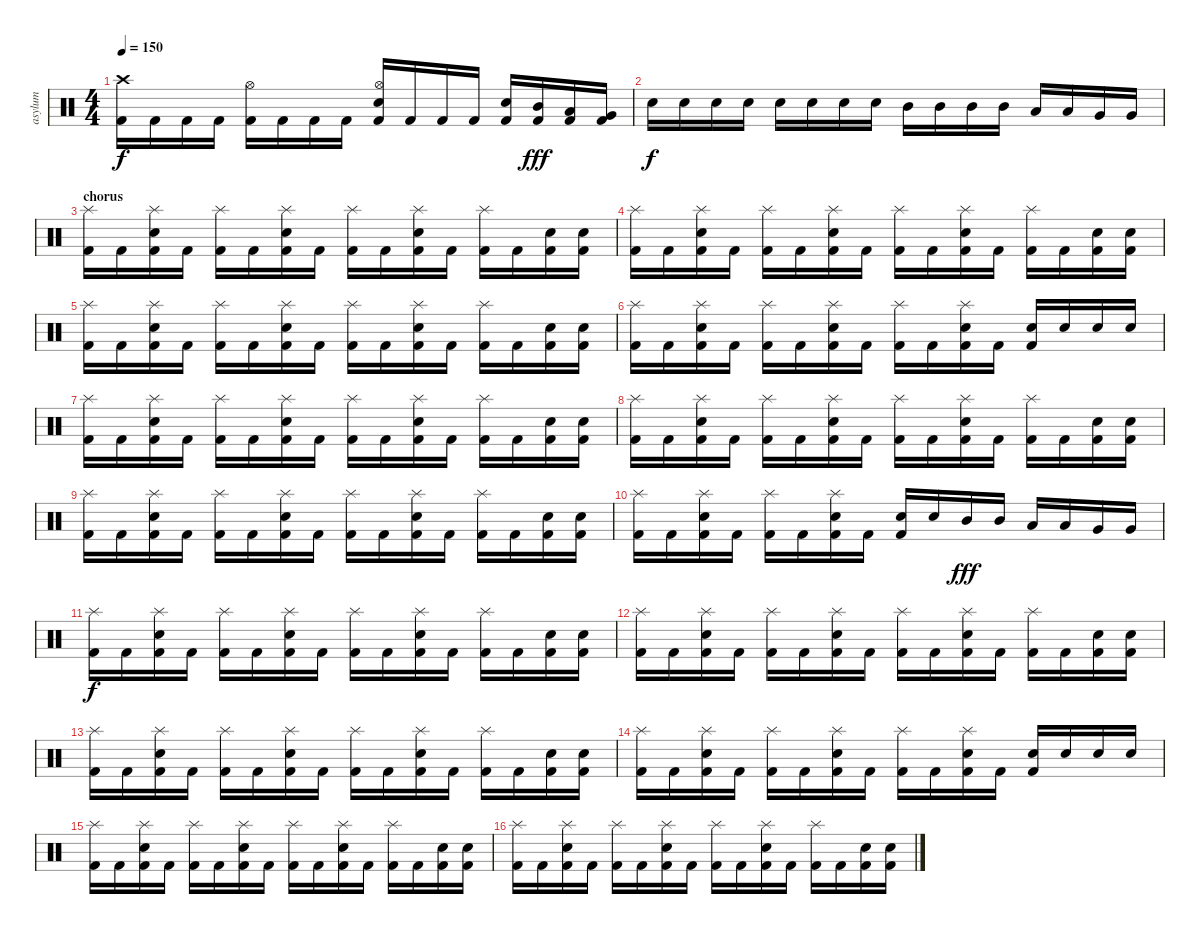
\track ("asylum" "asylum") {instrument percussion}
\staff {score}
\articulation defaults
\ts (4 4)
\tempo 150
\clef neutral
\ks c
("Crash high (hit)" "Kick (hit) 2").16{dy f} "Kick (hit) 2".16 "Kick (hit) 2".16 "Kick (hit) 2".16 ("Hi-Hat (open)" "Kick (hit) 2").16 "Kick (hit) 2".16 "Kick (hit) 2".16 "Kick (hit) 2".16 ("Hi-Hat (open)" "Electric Snare (hit)" "Kick (hit) 2").16 "Kick (hit) 2".16 "Kick (hit) 2".16 "Kick (hit) 2".16 ("Electric Snare (hit)" "Kick (hit) 2").16 ("Mid Tom (hit)" "Kick (hit) 2").16{dy fff} ("Low Tom (hit)" "Kick (hit) 2").16 ("Very Low Tom (hit)" "Kick (hit) 2").16 |
"Electric Snare (hit)".16{dy f} "Electric Snare (hit)".16 "Electric Snare (hit)".16 "Electric Snare (hit)".16 "Electric Snare (hit)".16 "Electric Snare (hit)".16 "Electric Snare (hit)".16 "Electric Snare (hit)".16 "Mid Tom (hit)".16 "Mid Tom (hit)".16 "Mid Tom (hit)".16 "Mid Tom (hit)".16 "Low Tom (hit)".16 "Low Tom (hit)".16 "Very Low Tom (hit)".16 "Very Low Tom (hit)".16 |
\section ("" "chorus")
("Splash (hit)" "Kick (hit) 2").16 "Kick (hit) 2".16 ("Splash (hit)" "Electric Snare (hit)" "Kick (hit) 2").16 "Kick (hit) 2".16 ("Splash (hit)" "Kick (hit) 2").16 "Kick (hit) 2".16 ("Splash (hit)" "Electric Snare (hit)" "Kick (hit) 2").16 "Kick (hit) 2".16 ("Splash (hit)" "Kick (hit) 2").16 "Kick (hit) 2".16 ("Splash (hit)" "Electric Snare (hit)" "Kick (hit) 2").16 "Kick (hit) 2".16 ("Splash (hit)" "Kick (hit) 2").16 "Kick (hit) 2".16 ("Electric Snare (hit)" "Kick (hit) 2").16 ("Electric Snare (hit)" "Kick (hit) 2").16 |
("Splash (hit)" "Kick (hit) 2").16 "Kick (hit) 2".16 ("Splash (hit)" "Electric Snare (hit)" "Kick (hit) 2").16 "Kick (hit) 2".16 ("Splash (hit)" "Kick (hit) 2").16 "Kick (hit) 2".16 ("Splash (hit)" "Electric Snare (hit)" "Kick (hit) 2").16 "Kick (hit) 2".16 ("Splash (hit)" "Kick (hit) 2").16 "Kick (hit) 2".16 ("Splash (hit)" "Electric Snare (hit)" "Kick (hit) 2").16 "Kick (hit) 2".16 ("Splash (hit)" "Kick (hit) 2").16 "Kick (hit) 2".16 ("Electric Snare (hit)" "Kick (hit) 2").16 ("Electric Snare (hit)" "Kick (hit) 2").16 |
("Splash (hit)" "Kick (hit) 2").16 "Kick (hit) 2".16 ("Splash (hit)" "Electric Snare (hit)" "Kick (hit) 2").16 "Kick (hit) 2".16 ("Splash (hit)" "Kick (hit) 2").16 "Kick (hit) 2".16 ("Splash (hit)" "Electric Snare (hit)" "Kick (hit) 2").16 "Kick (hit) 2".16 ("Splash (hit)" "Kick (hit) 2").16 "Kick (hit) 2".16 ("Splash (hit)" "Electric Snare (hit)" "Kick (hit) 2").16 "Kick (hit) 2".16 ("Splash (hit)" "Kick (hit) 2").16 "Kick (hit) 2".16 ("Electric Snare (hit)" "Kick (hit) 2").16 ("Electric Snare (hit)" "Kick (hit) 2").16 |
("Splash (hit)" "Kick (hit) 2").16 "Kick (hit) 2".16 ("Splash (hit)" "Electric Snare (hit)" "Kick (hit) 2").16 "Kick (hit) 2".16 ("Splash (hit)" "Kick (hit) 2").16 "Kick (hit) 2".16 ("Splash (hit)" "Electric Snare (hit)" "Kick (hit) 2").16 "Kick (hit) 2".16 ("Splash (hit)" "Kick (hit) 2").16 "Kick (hit) 2".16 ("Splash (hit)" "Electric Snare (hit)" "Kick (hit) 2").16 "Kick (hit) 2".16 ("Electric Snare (hit)" "Kick (hit) 2").16 "Electric Snare (hit)".16 "Electric Snare (hit)".16 "Electric Snare (hit)".16 |
("Splash (hit)" "Kick (hit) 2").16 "Kick (hit) 2".16 ("Splash (hit)" "Electric Snare (hit)" "Kick (hit) 2").16 "Kick (hit) 2".16 ("Splash (hit)" "Kick (hit) 2").16 "Kick (hit) 2".16 ("Splash (hit)" "Electric Snare (hit)" "Kick (hit) 2").16 "Kick (hit) 2".16 ("Splash (hit)" "Kick (hit) 2").16 "Kick (hit) 2".16 ("Splash (hit)" "Electric Snare (hit)" "Kick (hit) 2").16 "Kick (hit) 2".16 ("Splash (hit)" "Kick (hit) 2").16 "Kick (hit) 2".16 ("Electric Snare (hit)" "Kick (hit) 2").16 ("Electric Snare (hit)" "Kick (hit) 2").16 |
("Splash (hit)" "Kick (hit) 2").16 "Kick (hit) 2".16 ("Splash (hit)" "Electric Snare (hit)" "Kick (hit) 2").16 "Kick (hit) 2".16 ("Splash (hit)" "Kick (hit) 2").16 "Kick (hit) 2".16 ("Splash (hit)" "Electric Snare (hit)" "Kick (hit) 2").16 "Kick (hit) 2".16 ("Splash (hit)" "Kick (hit) 2").16 "Kick (hit) 2".16 ("Splash (hit)" "Electric Snare (hit)" "Kick (hit) 2").16 "Kick (hit) 2".16 ("Splash (hit)" "Kick (hit) 2").16 "Kick (hit) 2".16 ("Electric Snare (hit)" "Kick (hit) 2").16 ("Electric Snare (hit)" "Kick (hit) 2").16 |
("Splash (hit)" "Kick (hit) 2").16 "Kick (hit) 2".16 ("Splash (hit)" "Electric Snare (hit)" "Kick (hit) 2").16 "Kick (hit) 2".16 ("Splash (hit)" "Kick (hit) 2").16 "Kick (hit) 2".16 ("Splash (hit)" "Electric Snare (hit)" "Kick (hit) 2").16 "Kick (hit) 2".16 ("Splash (hit)" "Kick (hit) 2").16 "Kick (hit) 2".16 ("Splash (hit)" "Electric Snare (hit)" "Kick (hit) 2").16 "Kick (hit) 2".16 ("Splash (hit)" "Kick (hit) 2").16 "Kick (hit) 2".16 ("Electric Snare (hit)" "Kick (hit) 2").16 ("Electric Snare (hit)" "Kick (hit) 2").16 |
("Splash (hit)" "Kick (hit) 2").16 "Kick (hit) 2".16 ("Splash (hit)" "Electric Snare (hit)" "Kick (hit) 2").16 "Kick (hit) 2".16 ("Splash (hit)" "Kick (hit) 2").16 "Kick (hit) 2".16 ("Splash (hit)" "Electric Snare (hit)" "Kick (hit) 2").16 "Kick (hit) 2".16 ("Electric Snare (hit)" "Kick (hit) 2").16 "Electric Snare (hit)".16 "Mid Tom (hit)".16{dy fff} "Mid Tom (hit)".16 "Low Tom (hit)".16 "Low Tom (hit)".16 "Very Low Tom (hit)".16 "Very Low Tom (hit)".16 |
("Splash (hit)" "Kick (hit) 2").16{dy f} "Kick (hit) 2".16 ("Splash (hit)" "Electric Snare (hit)" "Kick (hit) 2").16 "Kick (hit) 2".16 ("Splash (hit)" "Kick (hit) 2").16 "Kick (hit) 2".16 ("Splash (hit)" "Electric Snare (hit)" "Kick (hit) 2").16 "Kick (hit) 2".16 ("Splash (hit)" "Kick (hit) 2").16 "Kick (hit) 2".16 ("Splash (hit)" "Electric Snare (hit)" "Kick (hit) 2").16 "Kick (hit) 2".16 ("Splash (hit)" "Kick (hit) 2").16 "Kick (hit) 2".16 ("Electric Snare (hit)" "Kick (hit) 2").16 ("Electric Snare (hit)" "Kick (hit) 2").16 |
("Splash (hit)" "Kick (hit) 2").16 "Kick (hit) 2".16 ("Splash (hit)" "Electric Snare (hit)" "Kick (hit) 2").16 "Kick (hit) 2".16 ("Splash (hit)" "Kick (hit) 2").16 "Kick (hit) 2".16 ("Splash (hit)" "Electric Snare (hit)" "Kick (hit) 2").16 "Kick (hit) 2".16 ("Splash (hit)" "Kick (hit) 2").16 "Kick (hit) 2".16 ("Splash (hit)" "Electric Snare (hit)" "Kick (hit) 2").16 "Kick (hit) 2".16 ("Splash (hit)" "Kick (hit) 2").16 "Kick (hit) 2".16 ("Electric Snare (hit)" "Kick (hit) 2").16 ("Electric Snare (hit)" "Kick (hit) 2").16 |
("Splash (hit)" "Kick (hit) 2").16 "Kick (hit) 2".16 ("Splash (hit)" "Electric Snare (hit)" "Kick (hit) 2").16 "Kick (hit) 2".16 ("Splash (hit)" "Kick (hit) 2").16 "Kick (hit) 2".16 ("Splash (hit)" "Electric Snare (hit)" "Kick (hit) 2").16 "Kick (hit) 2".16 ("Splash (hit)" "Kick (hit) 2").16 "Kick (hit) 2".16 ("Splash (hit)" "Electric Snare (hit)" "Kick (hit) 2").16 "Kick (hit) 2".16 ("Splash (hit)" "Kick (hit) 2").16 "Kick (hit) 2".16 ("Electric Snare (hit)" "Kick (hit) 2").16 ("Electric Snare (hit)" "Kick (hit) 2").16 |
("Splash (hit)" "Kick (hit) 2").16 "Kick (hit) 2".16 ("Splash (hit)" "Electric Snare (hit)" "Kick (hit) 2").16 "Kick (hit) 2".16 ("Splash (hit)" "Kick (hit) 2").16 "Kick (hit) 2".16 ("Splash (hit)" "Electric Snare (hit)" "Kick (hit) 2").16 "Kick (hit) 2".16 ("Splash (hit)" "Kick (hit) 2").16 "Kick (hit) 2".16 ("Splash (hit)" "Electric Snare (hit)" "Kick (hit) 2").16 "Kick (hit) 2".16 ("Electric Snare (hit)" "Kick (hit) 2").16 "Electric Snare (hit)".16 "Electric Snare (hit)".16 "Electric Snare (hit)".16 |
("Splash (hit)" "Kick (hit) 2").16 "Kick (hit) 2".16 ("Splash (hit)" "Electric Snare (hit)" "Kick (hit) 2").16 "Kick (hit) 2".16 ("Splash (hit)" "Kick (hit) 2").16 "Kick (hit) 2".16 ("Splash (hit)" "Electric Snare (hit)" "Kick (hit) 2").16 "Kick (hit) 2".16 ("Splash (hit)" "Kick (hit) 2").16 "Kick (hit) 2".16 ("Splash (hit)" "Electric Snare (hit)" "Kick (hit) 2").16 "Kick (hit) 2".16 ("Splash (hit)" "Kick (hit) 2").16 "Kick (hit) 2".16 ("Electric Snare (hit)" "Kick (hit) 2").16 ("Electric Snare (hit)" "Kick (hit) 2").16 |
("Splash (hit)" "Kick (hit) 2").16 "Kick (hit) 2".16 ("Splash (hit)" "Electric Snare (hit)" "Kick (hit) 2").16 "Kick (hit) 2".16 ("Splash (hit)" "Kick (hit) 2").16 "Kick (hit) 2".16 ("Splash (hit)" "Electric Snare (hit)" "Kick (hit) 2").16 "Kick (hit) 2".16 ("Splash (hit)" "Kick (hit) 2").16 "Kick (hit) 2".16 ("Splash (hit)" "Electric Snare (hit)" "Kick (hit) 2").16 "Kick (hit) 2".16 ("Splash (hit)" "Kick (hit) 2").16 "Kick (hit) 2".16 ("Electric Snare (hit)" "Kick (hit) 2").16 ("Electric Snare (hit)" "Kick (hit) 2").16
